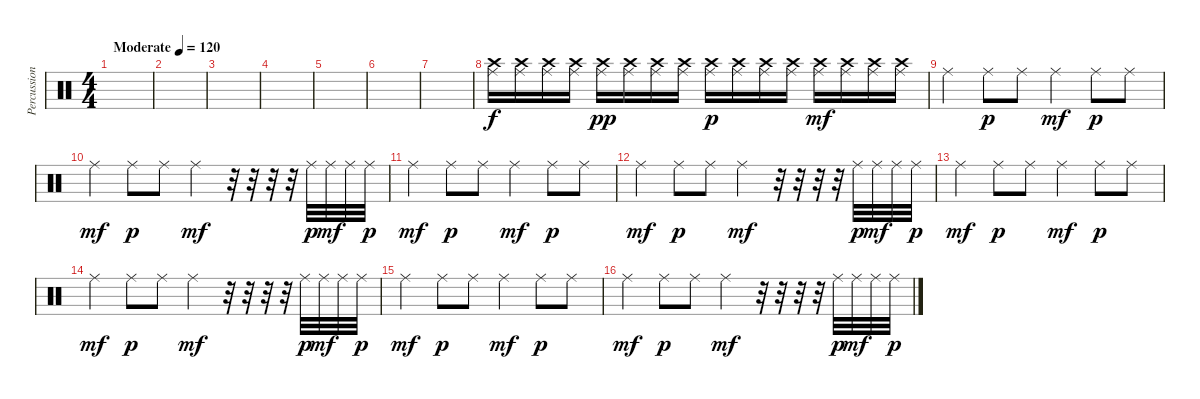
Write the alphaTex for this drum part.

\track ("Percussion" "Percussion") {instrument percussion}
\staff {score}
\articulation defaults
\ts (4 4)
\tempo (120 "Moderate")
\clef neutral
\ks c
|
|
|
|
|
|
|
("Crash high (hit)" "Ride (middle)").16 ("Crash high (hit)" "Ride (middle)").16 ("Crash high (hit)" "Ride (middle)").16 ("Crash high (hit)" "Ride (middle)").16 ("Crash high (hit)" "Ride (middle)").16{dy pp} ("Crash high (hit)" "Ride (middle)").16 ("Crash high (hit)" "Ride (middle)").16 ("Crash high (hit)" "Ride (middle)").16 ("Crash high (hit)" "Ride (middle)").16{dy p} ("Crash high (hit)" "Ride (middle)").16 ("Crash high (hit)" "Ride (middle)").16 ("Crash high (hit)" "Ride (middle)").16 ("Crash high (hit)" "Ride (middle)").16{dy mf} ("Crash high (hit)" "Ride (middle)").16 ("Crash high (hit)" "Ride (middle)").16 ("Crash high (hit)" "Ride (middle)").16 |
"Ride (middle)".4 "Ride (middle)".8{dy p} "Ride (middle)".8 "Ride (middle)".4{dy mf} "Ride (middle)".8{dy p} "Ride (middle)".8 |
"Ride (middle)".4{dy mf} "Ride (middle)".8{dy p} "Ride (middle)".8 "Ride (middle)".4{dy mf} r.32 r.32 r.32 r.32 "Ride (middle)".32{dy p} "Ride (middle)".32{dy mf} "Ride (middle)".32 "Ride (middle)".32{dy p} |
"Ride (middle)".4{dy mf} "Ride (middle)".8{dy p} "Ride (middle)".8 "Ride (middle)".4{dy mf} "Ride (middle)".8{dy p} "Ride (middle)".8 |
"Ride (middle)".4{dy mf} "Ride (middle)".8{dy p} "Ride (middle)".8 "Ride (middle)".4{dy mf} r.32 r.32 r.32 r.32 "Ride (middle)".32{dy p} "Ride (middle)".32{dy mf} "Ride (middle)".32 "Ride (middle)".32{dy p} |
"Ride (middle)".4{dy mf} "Ride (middle)".8{dy p} "Ride (middle)".8 "Ride (middle)".4{dy mf} "Ride (middle)".8{dy p} "Ride (middle)".8 |
"Ride (middle)".4{dy mf} "Ride (middle)".8{dy p} "Ride (middle)".8 "Ride (middle)".4{dy mf} r.32 r.32 r.32 r.32 "Ride (middle)".32{dy p} "Ride (middle)".32{dy mf} "Ride (middle)".32 "Ride (middle)".32{dy p} |
"Ride (middle)".4{dy mf} "Ride (middle)".8{dy p} "Ride (middle)".8 "Ride (middle)".4{dy mf} "Ride (middle)".8{dy p} "Ride (middle)".8 |
"Ride (middle)".4{dy mf} "Ride (middle)".8{dy p} "Ride (middle)".8 "Ride (middle)".4{dy mf} r.32 r.32 r.32 r.32 "Ride (middle)".32{dy p} "Ride (middle)".32{dy mf} "Ride (middle)".32 "Ride (middle)".32{dy p}
